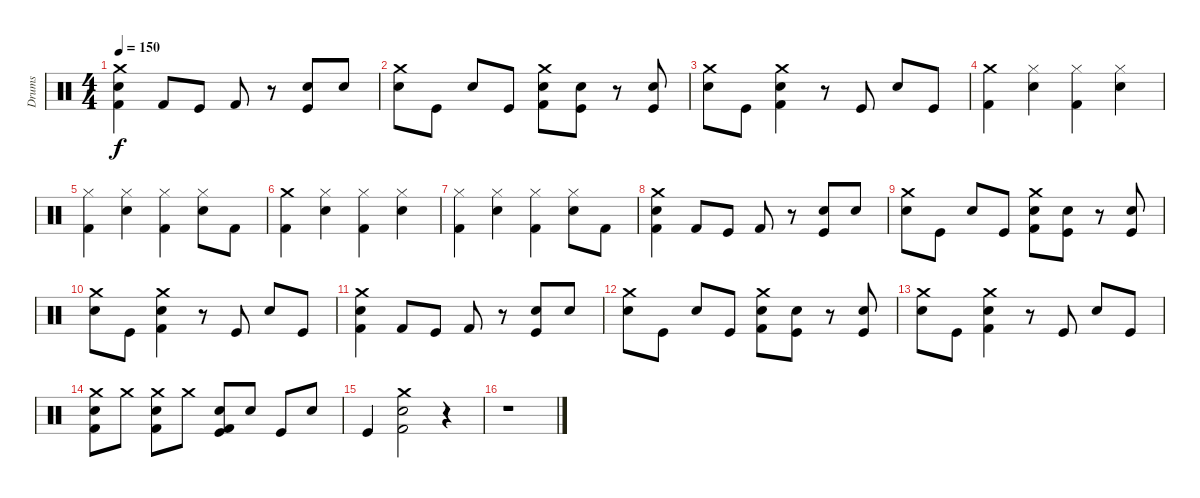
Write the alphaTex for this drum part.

\track ("Drums" "Drums") {instrument percussion}
\staff {score}
\articulation defaults
\ts (4 4)
\tempo 150
\clef neutral
\ks c
("Crash medium (hit)" "Snare (hit) 2" "Kick (hit) 2").4{dy f} "Kick (hit) 2".8 "Kick (hit)".8 "Kick (hit) 2".8 r.8 ("Kick (hit)" "Snare (hit) 2").8 "Snare (hit) 2".8 |
("Crash medium (hit)" "Snare (hit) 2").8 "Kick (hit)".8 "Snare (hit) 2".8 "Kick (hit)".8 ("Crash medium (hit)" "Snare (hit) 2" "Kick (hit) 2").8 ("Kick (hit)" "Snare (hit) 2").8 r.8 ("Kick (hit)" "Snare (hit) 2").8 |
("Crash medium (hit)" "Snare (hit) 2").8 "Kick (hit)".8 ("Crash medium (hit)" "Snare (hit) 2" "Kick (hit) 2").4 r.8 "Kick (hit)".8 "Snare (hit) 2".8 "Kick (hit)".8 |
("Kick (hit) 2" "Crash medium (hit)").4 ("Hi-Hat (closed)" "Snare (hit) 2").4 ("Kick (hit) 2" "Hi-Hat (closed)").4 ("Snare (hit) 2" "Hi-Hat (closed)").4 |
("Hi-Hat (closed)" "Kick (hit) 2").4 ("Snare (hit) 2" "Hi-Hat (closed)").4 ("Kick (hit) 2" "Hi-Hat (closed)").4 ("Hi-Hat (closed)" "Snare (hit) 2").8 "Kick (hit) 2".8 |
("Kick (hit) 2" "Crash medium (hit)").4 ("Hi-Hat (closed)" "Snare (hit) 2").4 ("Kick (hit) 2" "Hi-Hat (closed)").4 ("Snare (hit) 2" "Hi-Hat (closed)").4 |
("Hi-Hat (closed)" "Kick (hit) 2").4 ("Snare (hit) 2" "Hi-Hat (closed)").4 ("Kick (hit) 2" "Hi-Hat (closed)").4 ("Hi-Hat (closed)" "Snare (hit) 2").8 "Kick (hit) 2".8 |
("Crash medium (hit)" "Snare (hit) 2" "Kick (hit) 2").4 "Kick (hit) 2".8 "Kick (hit)".8 "Kick (hit) 2".8 r.8 ("Kick (hit)" "Snare (hit) 2").8 "Snare (hit) 2".8 |
("Crash medium (hit)" "Snare (hit) 2").8 "Kick (hit)".8 "Snare (hit) 2".8 "Kick (hit)".8 ("Crash medium (hit)" "Snare (hit) 2" "Kick (hit) 2").8 ("Kick (hit)" "Snare (hit) 2").8 r.8 ("Kick (hit)" "Snare (hit) 2").8 |
("Crash medium (hit)" "Snare (hit) 2").8 "Kick (hit)".8 ("Crash medium (hit)" "Snare (hit) 2" "Kick (hit) 2").4 r.8 "Kick (hit)".8 "Snare (hit) 2".8 "Kick (hit)".8 |
("Crash medium (hit)" "Snare (hit) 2" "Kick (hit) 2").4 "Kick (hit) 2".8 "Kick (hit)".8 "Kick (hit) 2".8 r.8 ("Kick (hit)" "Snare (hit) 2").8 "Snare (hit) 2".8 |
("Crash medium (hit)" "Snare (hit) 2").8 "Kick (hit)".8 "Snare (hit) 2".8 "Kick (hit)".8 ("Crash medium (hit)" "Snare (hit) 2" "Kick (hit) 2").8 ("Kick (hit)" "Snare (hit) 2").8 r.8 ("Kick (hit)" "Snare (hit) 2").8 |
("Crash medium (hit)" "Snare (hit) 2").8 "Kick (hit)".8 ("Crash medium (hit)" "Snare (hit) 2" "Kick (hit) 2").4 r.8 "Kick (hit)".8 "Snare (hit) 2".8 "Kick (hit)".8 |
("Crash medium (hit)" "Snare (hit) 2" "Kick (hit) 2").8 "Crash medium (hit)".8 ("Crash medium (hit)" "Snare (hit) 2" "Kick (hit) 2").8 "Crash medium (hit)".8 ("Kick (hit)" "Snare (hit) 2" "Kick (hit) 2").8 "Snare (hit) 2".8 "Kick (hit)".8 "Snare (hit) 2".8 |
"Kick (hit)".4 ("Crash medium (hit)" "Snare (hit) 2" "Kick (hit) 2").2 r.4 |
r.1
